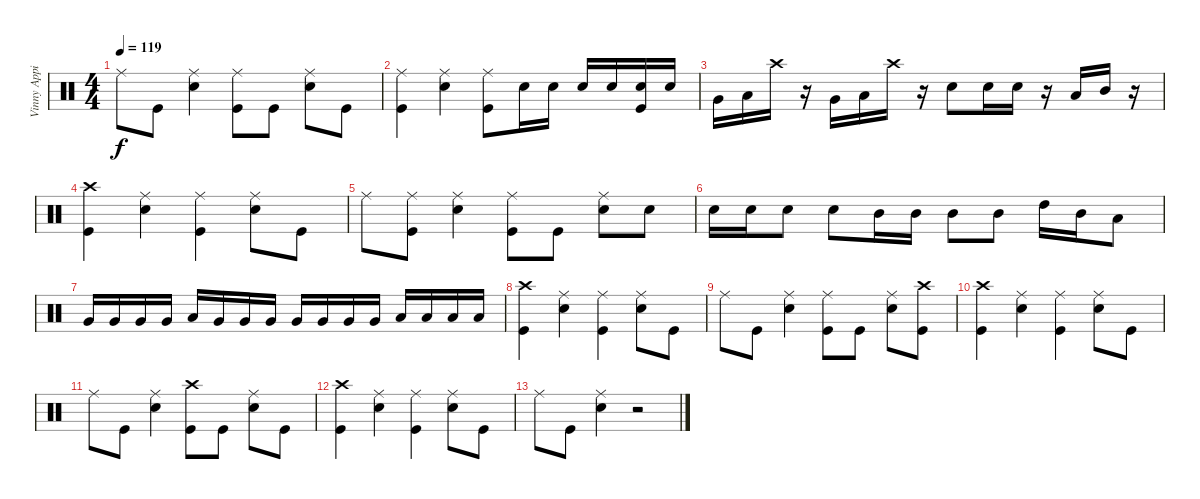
\track ("Vinny Appice" "Vinny Appi") {instrument percussion}
\staff {score}
\articulation defaults
\ts (4 4)
\tempo 119
\clef neutral
\ks c "Ride (middle)".8{dy f} "Kick (hit)".8
("Ride (middle)" "Snare (hit) 2").4 ("Ride (middle)" "Kick (hit)").8 "Kick (hit)".8 ("Ride (middle)" "Snare (hit) 2").8 "Kick (hit)".8 |
("Ride (middle)" "Kick (hit)").4 ("Ride (middle)" "Snare (hit) 2").4 ("Ride (middle)" "Kick (hit)").8 "Snare (hit) 2".16 "Snare (hit) 2".16 "Snare (hit) 2".16 "Snare (hit) 2".16 ("Snare (hit) 2" "Kick (hit)").16 "Snare (hit) 2".16 |
"Very Low Tom (hit)".16 "Low Floor Tom (hit)".16 "Crash high (hit)".16 r.16 "Very Low Tom (hit)".16 "Low Floor Tom (hit)".16 "Crash high (hit)".16 r.16 "Snare (hit) 2".8 "Snare (hit) 2".16 "Snare (hit) 2".16 r.16 "Low Tom (hit)".16 "Mid Tom (hit)".16 r.16 |
("Crash high (hit)" "Kick (hit)").4 ("Ride (middle)" "Snare (hit) 2").4 ("Ride (middle)" "Kick (hit)").4 ("Ride (middle)" "Snare (hit) 2").8 "Kick (hit)".8 |
"Ride (middle)".8 ("Ride (middle)" "Kick (hit)").8 ("Ride (middle)" "Snare (hit) 2").4 ("Ride (middle)" "Kick (hit)").8 "Kick (hit)".8 ("Ride (middle)" "Snare (hit) 2").8 "Snare (hit) 2".8 |
"Snare (hit) 2".16 "Snare (hit) 2".16 "Snare (hit) 2".8 "Snare (hit) 2".8 "Mid Tom (hit)".16 "Mid Tom (hit)".16 "Mid Tom (hit)".8 "Mid Tom (hit)".8 "High Tom (hit)".16 "Mid Tom (hit)".16 "Low Tom (hit)".8 |
"Very Low Tom (hit)".16 "Very Low Tom (hit)".16 "Very Low Tom (hit)".16 "Very Low Tom (hit)".16 "Low Tom (hit)".16 "Very Low Tom (hit)".16 "Very Low Tom (hit)".16 "Very Low Tom (hit)".16 "Very Low Tom (hit)".16 "Very Low Tom (hit)".16 "Very Low Tom (hit)".16 "Very Low Tom (hit)".16 "Low Floor Tom (hit)".16 "Low Floor Tom (hit)".16 "Low Floor Tom (hit)".16 "Low Floor Tom (hit)".16 |
("Crash high (hit)" "Kick (hit)").4 ("Ride (middle)" "Snare (hit) 2").4 ("Ride (middle)" "Kick (hit)").4 ("Ride (middle)" "Snare (hit) 2").8 "Kick (hit)".8 |
"Ride (middle)".8 "Kick (hit)".8 ("Ride (middle)" "Snare (hit) 2").4 ("Ride (middle)" "Kick (hit)").8 "Kick (hit)".8 ("Ride (middle)" "Snare (hit) 2").8 ("Crash high (hit)" "Kick (hit)").8 |
("Crash high (hit)" "Kick (hit)").4 ("Ride (middle)" "Snare (hit) 2").4 ("Ride (middle)" "Kick (hit)").4 ("Ride (middle)" "Snare (hit) 2").8 "Kick (hit)".8 |
"Ride (middle)".8 "Kick (hit)".8 ("Ride (middle)" "Snare (hit) 2").4 ("Crash high (hit)" "Kick (hit)").8 "Kick (hit)".8 ("Ride (middle)" "Snare (hit) 2").8 "Kick (hit)".8 |
("Crash high (hit)" "Kick (hit)").4 ("Ride (middle)" "Snare (hit) 2").4 ("Ride (middle)" "Kick (hit)").4 ("Ride (middle)" "Snare (hit) 2").8 "Kick (hit)".8 |
"Ride (middle)".8 "Kick (hit)".8 ("Ride (middle)" "Snare (hit) 2").4 r.2
